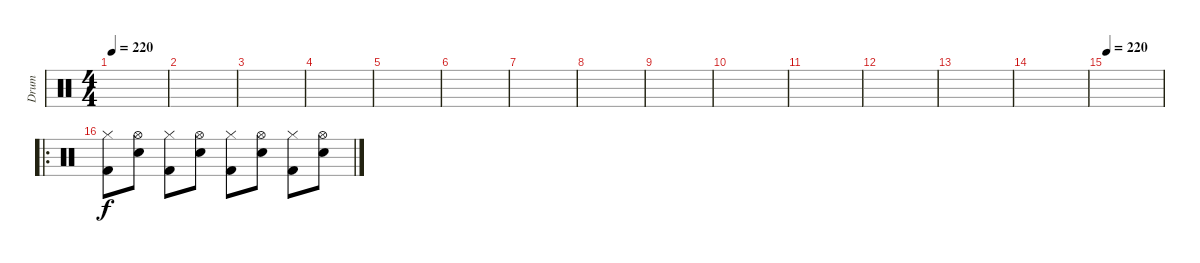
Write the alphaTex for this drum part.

\track ("Drum" "Drum") {instrument percussion}
\staff {score}
\articulation defaults
\ts (4 4)
\tempo 220
\clef neutral
\ks c
|
|
|
|
|
|
|
|
|
|
|
|
|
|
\tempo 220
|
\ro
("Hi-Hat (closed)" "Kick (hit) 2").8 ("Hi-Hat (open)" "Snare (hit) 2").8 ("Hi-Hat (closed)" "Kick (hit) 2").8 ("Hi-Hat (open)" "Snare (hit) 2").8 ("Hi-Hat (closed)" "Kick (hit) 2").8 ("Hi-Hat (open)" "Snare (hit) 2").8 ("Hi-Hat (closed)" "Kick (hit) 2").8 ("Hi-Hat (open)" "Snare (hit) 2").8
